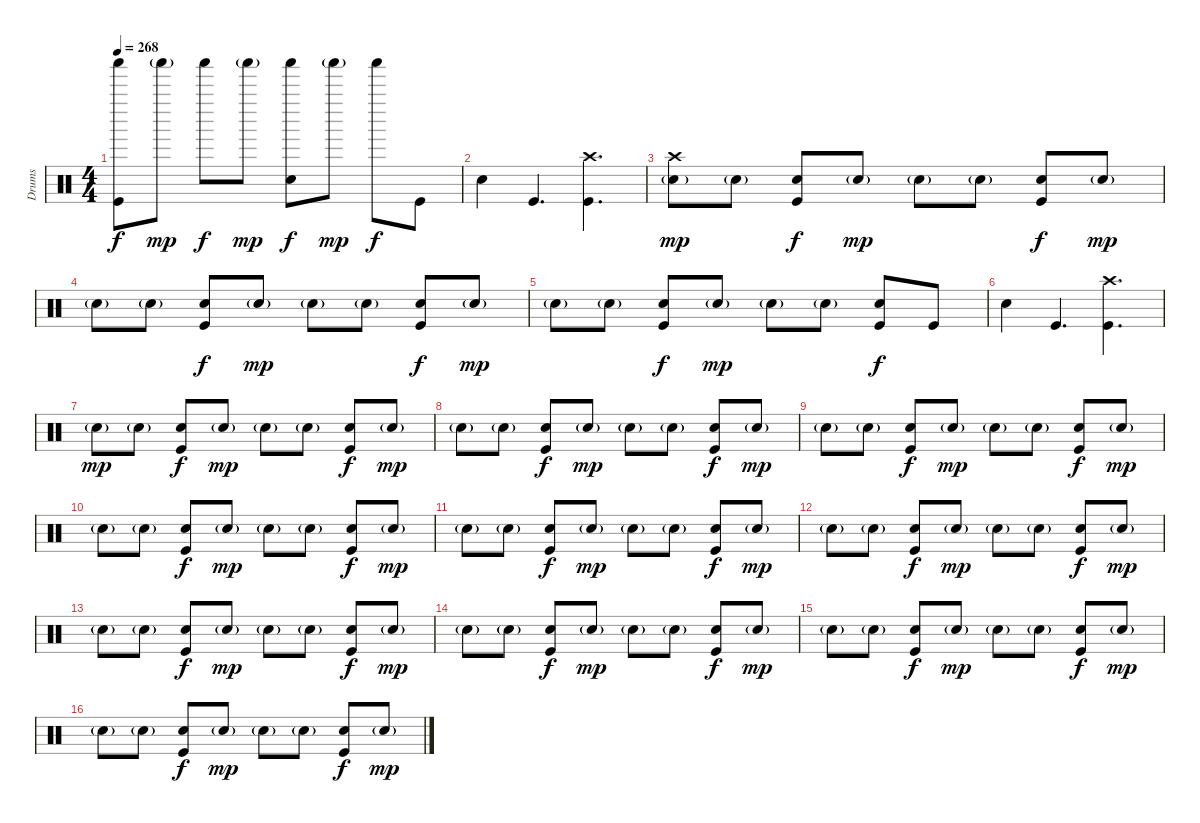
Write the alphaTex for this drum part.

\track ("Drums" "Drums") {instrument percussion}
\staff {score}
\articulation defaults
\ts (4 4)
\tempo 268
\clef neutral
\ks c
("Shaker (hit)" "Kick (hit)").8{dy f} "Shaker (hit)"{g}.8{dy mp} "Shaker (hit)".8{dy f} "Shaker (hit)"{g}.8{dy mp} ("Shaker (hit)" "Electric Snare (hit)").8{dy f} "Shaker (hit)"{g}.8{dy mp} "Shaker (hit)".8{dy f} "Kick (hit)".8 |
"Electric Snare (hit)".4 "Kick (hit)".4{d} ("Crash high (hit)" "Kick (hit)").4{d} |
("Crash high (hit)" "Electric Snare (hit)"{g}).8{dy mp} "Electric Snare (hit)"{g}.8 ("Electric Snare (hit)" "Kick (hit)").8{dy f} "Electric Snare (hit)"{g}.8{dy mp} "Electric Snare (hit)"{g}.8 "Electric Snare (hit)"{g}.8 ("Electric Snare (hit)" "Kick (hit)").8{dy f} "Electric Snare (hit)"{g}.8{dy mp} |
"Electric Snare (hit)"{g}.8 "Electric Snare (hit)"{g}.8 ("Electric Snare (hit)" "Kick (hit)").8{dy f} "Electric Snare (hit)"{g}.8{dy mp} "Electric Snare (hit)"{g}.8 "Electric Snare (hit)"{g}.8 ("Electric Snare (hit)" "Kick (hit)").8{dy f} "Electric Snare (hit)"{g}.8{dy mp} |
"Electric Snare (hit)"{g}.8 "Electric Snare (hit)"{g}.8 ("Electric Snare (hit)" "Kick (hit)").8{dy f} "Electric Snare (hit)"{g}.8{dy mp} "Electric Snare (hit)"{g}.8 "Electric Snare (hit)"{g}.8 ("Electric Snare (hit)" "Kick (hit)").8{dy f} "Kick (hit)".8 |
"Electric Snare (hit)".4 "Kick (hit)".4{d} ("Crash high (hit)" "Kick (hit)").4{d} |
"Electric Snare (hit)"{g}.8{dy mp} "Electric Snare (hit)"{g}.8 ("Electric Snare (hit)" "Kick (hit)").8{dy f} "Electric Snare (hit)"{g}.8{dy mp} "Electric Snare (hit)"{g}.8 "Electric Snare (hit)"{g}.8 ("Electric Snare (hit)" "Kick (hit)").8{dy f} "Electric Snare (hit)"{g}.8{dy mp} |
"Electric Snare (hit)"{g}.8 "Electric Snare (hit)"{g}.8 ("Electric Snare (hit)" "Kick (hit)").8{dy f} "Electric Snare (hit)"{g}.8{dy mp} "Electric Snare (hit)"{g}.8 "Electric Snare (hit)"{g}.8 ("Electric Snare (hit)" "Kick (hit)").8{dy f} "Electric Snare (hit)"{g}.8{dy mp} |
"Electric Snare (hit)"{g}.8 "Electric Snare (hit)"{g}.8 ("Electric Snare (hit)" "Kick (hit)").8{dy f} "Electric Snare (hit)"{g}.8{dy mp} "Electric Snare (hit)"{g}.8 "Electric Snare (hit)"{g}.8 ("Electric Snare (hit)" "Kick (hit)").8{dy f} "Electric Snare (hit)"{g}.8{dy mp} |
"Electric Snare (hit)"{g}.8 "Electric Snare (hit)"{g}.8 ("Electric Snare (hit)" "Kick (hit)").8{dy f} "Electric Snare (hit)"{g}.8{dy mp} "Electric Snare (hit)"{g}.8 "Electric Snare (hit)"{g}.8 ("Electric Snare (hit)" "Kick (hit)").8{dy f} "Electric Snare (hit)"{g}.8{dy mp} |
"Electric Snare (hit)"{g}.8 "Electric Snare (hit)"{g}.8 ("Electric Snare (hit)" "Kick (hit)").8{dy f} "Electric Snare (hit)"{g}.8{dy mp} "Electric Snare (hit)"{g}.8 "Electric Snare (hit)"{g}.8 ("Electric Snare (hit)" "Kick (hit)").8{dy f} "Electric Snare (hit)"{g}.8{dy mp} |
"Electric Snare (hit)"{g}.8 "Electric Snare (hit)"{g}.8 ("Electric Snare (hit)" "Kick (hit)").8{dy f} "Electric Snare (hit)"{g}.8{dy mp} "Electric Snare (hit)"{g}.8 "Electric Snare (hit)"{g}.8 ("Electric Snare (hit)" "Kick (hit)").8{dy f} "Electric Snare (hit)"{g}.8{dy mp} |
"Electric Snare (hit)"{g}.8 "Electric Snare (hit)"{g}.8 ("Electric Snare (hit)" "Kick (hit)").8{dy f} "Electric Snare (hit)"{g}.8{dy mp} "Electric Snare (hit)"{g}.8 "Electric Snare (hit)"{g}.8 ("Electric Snare (hit)" "Kick (hit)").8{dy f} "Electric Snare (hit)"{g}.8{dy mp} |
"Electric Snare (hit)"{g}.8 "Electric Snare (hit)"{g}.8 ("Electric Snare (hit)" "Kick (hit)").8{dy f} "Electric Snare (hit)"{g}.8{dy mp} "Electric Snare (hit)"{g}.8 "Electric Snare (hit)"{g}.8 ("Electric Snare (hit)" "Kick (hit)").8{dy f} "Electric Snare (hit)"{g}.8{dy mp} |
"Electric Snare (hit)"{g}.8 "Electric Snare (hit)"{g}.8 ("Electric Snare (hit)" "Kick (hit)").8{dy f} "Electric Snare (hit)"{g}.8{dy mp} "Electric Snare (hit)"{g}.8 "Electric Snare (hit)"{g}.8 ("Electric Snare (hit)" "Kick (hit)").8{dy f} "Electric Snare (hit)"{g}.8{dy mp} |
"Electric Snare (hit)"{g}.8 "Electric Snare (hit)"{g}.8 ("Electric Snare (hit)" "Kick (hit)").8{dy f} "Electric Snare (hit)"{g}.8{dy mp} "Electric Snare (hit)"{g}.8 "Electric Snare (hit)"{g}.8 ("Electric Snare (hit)" "Kick (hit)").8{dy f} "Electric Snare (hit)"{g}.8{dy mp}
